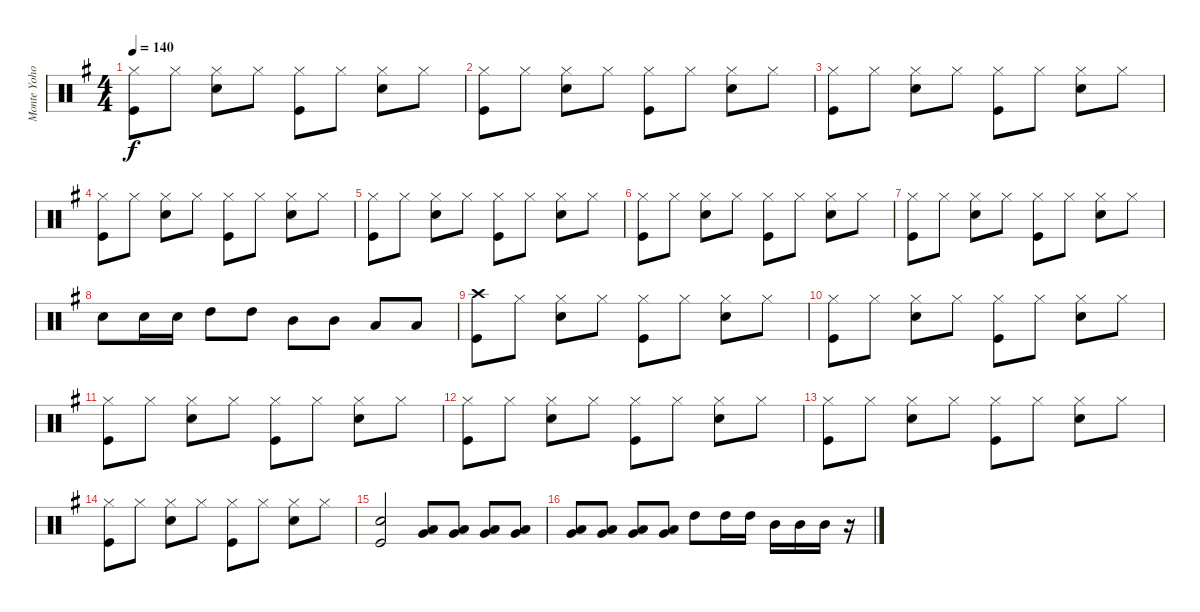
\track ("Monte Yoho Drums" "Monte Yoho") {instrument percussion}
\staff {score}
\articulation defaults
\ts (4 4)
\tempo 140
\clef neutral
\ks g
("Hi-Hat (closed)" "Kick (hit)").8{dy f} "Hi-Hat (closed)".8 ("Hi-Hat (closed)" "Snare (hit) 2").8 "Hi-Hat (closed)".8 ("Hi-Hat (closed)" "Kick (hit)").8 "Hi-Hat (closed)".8 ("Hi-Hat (closed)" "Snare (hit) 2").8 "Hi-Hat (closed)".8 |
("Hi-Hat (closed)" "Kick (hit)").8 "Hi-Hat (closed)".8 ("Hi-Hat (closed)" "Snare (hit) 2").8 "Hi-Hat (closed)".8 ("Hi-Hat (closed)" "Kick (hit)").8 "Hi-Hat (closed)".8 ("Hi-Hat (closed)" "Snare (hit) 2").8 "Hi-Hat (closed)".8 |
("Hi-Hat (closed)" "Kick (hit)").8 "Hi-Hat (closed)".8 ("Hi-Hat (closed)" "Snare (hit) 2").8 "Hi-Hat (closed)".8 ("Hi-Hat (closed)" "Kick (hit)").8 "Hi-Hat (closed)".8 ("Hi-Hat (closed)" "Snare (hit) 2").8 "Hi-Hat (closed)".8 |
("Hi-Hat (closed)" "Kick (hit)").8 "Hi-Hat (closed)".8 ("Hi-Hat (closed)" "Snare (hit) 2").8 "Hi-Hat (closed)".8 ("Hi-Hat (closed)" "Kick (hit)").8 "Hi-Hat (closed)".8 ("Hi-Hat (closed)" "Snare (hit) 2").8 "Hi-Hat (closed)".8 |
("Hi-Hat (closed)" "Kick (hit)").8 "Hi-Hat (closed)".8 ("Hi-Hat (closed)" "Snare (hit) 2").8 "Hi-Hat (closed)".8 ("Hi-Hat (closed)" "Kick (hit)").8 "Hi-Hat (closed)".8 ("Hi-Hat (closed)" "Snare (hit) 2").8 "Hi-Hat (closed)".8 |
("Hi-Hat (closed)" "Kick (hit)").8 "Hi-Hat (closed)".8 ("Hi-Hat (closed)" "Snare (hit) 2").8 "Hi-Hat (closed)".8 ("Hi-Hat (closed)" "Kick (hit)").8 "Hi-Hat (closed)".8 ("Hi-Hat (closed)" "Snare (hit) 2").8 "Hi-Hat (closed)".8 |
("Hi-Hat (closed)" "Kick (hit)").8 "Hi-Hat (closed)".8 ("Hi-Hat (closed)" "Snare (hit) 2").8 "Hi-Hat (closed)".8 ("Hi-Hat (closed)" "Kick (hit)").8 "Hi-Hat (closed)".8 ("Hi-Hat (closed)" "Snare (hit) 2").8 "Hi-Hat (closed)".8 |
"Snare (hit) 2".8 "Snare (hit) 2".16 "Snare (hit) 2".16 "High Tom (hit)".8 "High Tom (hit)".8 "Mid Tom (hit)".8 "Mid Tom (hit)".8 "Low Tom (hit)".8 "Low Tom (hit)".8 |
("Crash high (hit)" "Kick (hit)").8 "Hi-Hat (closed)".8 ("Hi-Hat (closed)" "Snare (hit) 2").8 "Hi-Hat (closed)".8 ("Hi-Hat (closed)" "Kick (hit)").8 "Hi-Hat (closed)".8 ("Hi-Hat (closed)" "Snare (hit) 2").8 "Hi-Hat (closed)".8 |
("Hi-Hat (closed)" "Kick (hit)").8 "Hi-Hat (closed)".8 ("Hi-Hat (closed)" "Snare (hit) 2").8 "Hi-Hat (closed)".8 ("Hi-Hat (closed)" "Kick (hit)").8 "Hi-Hat (closed)".8 ("Hi-Hat (closed)" "Snare (hit) 2").8 "Hi-Hat (closed)".8 |
("Hi-Hat (closed)" "Kick (hit)").8 "Hi-Hat (closed)".8 ("Hi-Hat (closed)" "Snare (hit) 2").8 "Hi-Hat (closed)".8 ("Hi-Hat (closed)" "Kick (hit)").8 "Hi-Hat (closed)".8 ("Hi-Hat (closed)" "Snare (hit) 2").8 "Hi-Hat (closed)".8 |
("Hi-Hat (closed)" "Kick (hit)").8 "Hi-Hat (closed)".8 ("Hi-Hat (closed)" "Snare (hit) 2").8 "Hi-Hat (closed)".8 ("Hi-Hat (closed)" "Kick (hit)").8 "Hi-Hat (closed)".8 ("Hi-Hat (closed)" "Snare (hit) 2").8 "Hi-Hat (closed)".8 |
("Hi-Hat (closed)" "Kick (hit)").8 "Hi-Hat (closed)".8 ("Hi-Hat (closed)" "Snare (hit) 2").8 "Hi-Hat (closed)".8 ("Hi-Hat (closed)" "Kick (hit)").8 "Hi-Hat (closed)".8 ("Hi-Hat (closed)" "Snare (hit) 2").8 "Hi-Hat (closed)".8 |
("Hi-Hat (closed)" "Kick (hit)").8 "Hi-Hat (closed)".8 ("Hi-Hat (closed)" "Snare (hit) 2").8 "Hi-Hat (closed)".8 ("Hi-Hat (closed)" "Kick (hit)").8 "Hi-Hat (closed)".8 ("Hi-Hat (closed)" "Snare (hit) 2").8 "Hi-Hat (closed)".8 |
("Snare (hit) 2" "Kick (hit)").2 ("Very Low Tom (hit)" "Low Floor Tom (hit)").8 ("Very Low Tom (hit)" "Low Floor Tom (hit)").8 ("Very Low Tom (hit)" "Low Floor Tom (hit)").8 ("Very Low Tom (hit)" "Low Floor Tom (hit)").8 |
("Very Low Tom (hit)" "Low Floor Tom (hit)").8 ("Very Low Tom (hit)" "Low Floor Tom (hit)").8 ("Very Low Tom (hit)" "Low Floor Tom (hit)").8 ("Very Low Tom (hit)" "Low Floor Tom (hit)").8 "High Tom (hit)".8 "High Tom (hit)".16 "High Tom (hit)".16 "Mid Tom (hit)".16 "Mid Tom (hit)".16 "Mid Tom (hit)".16 r.16
